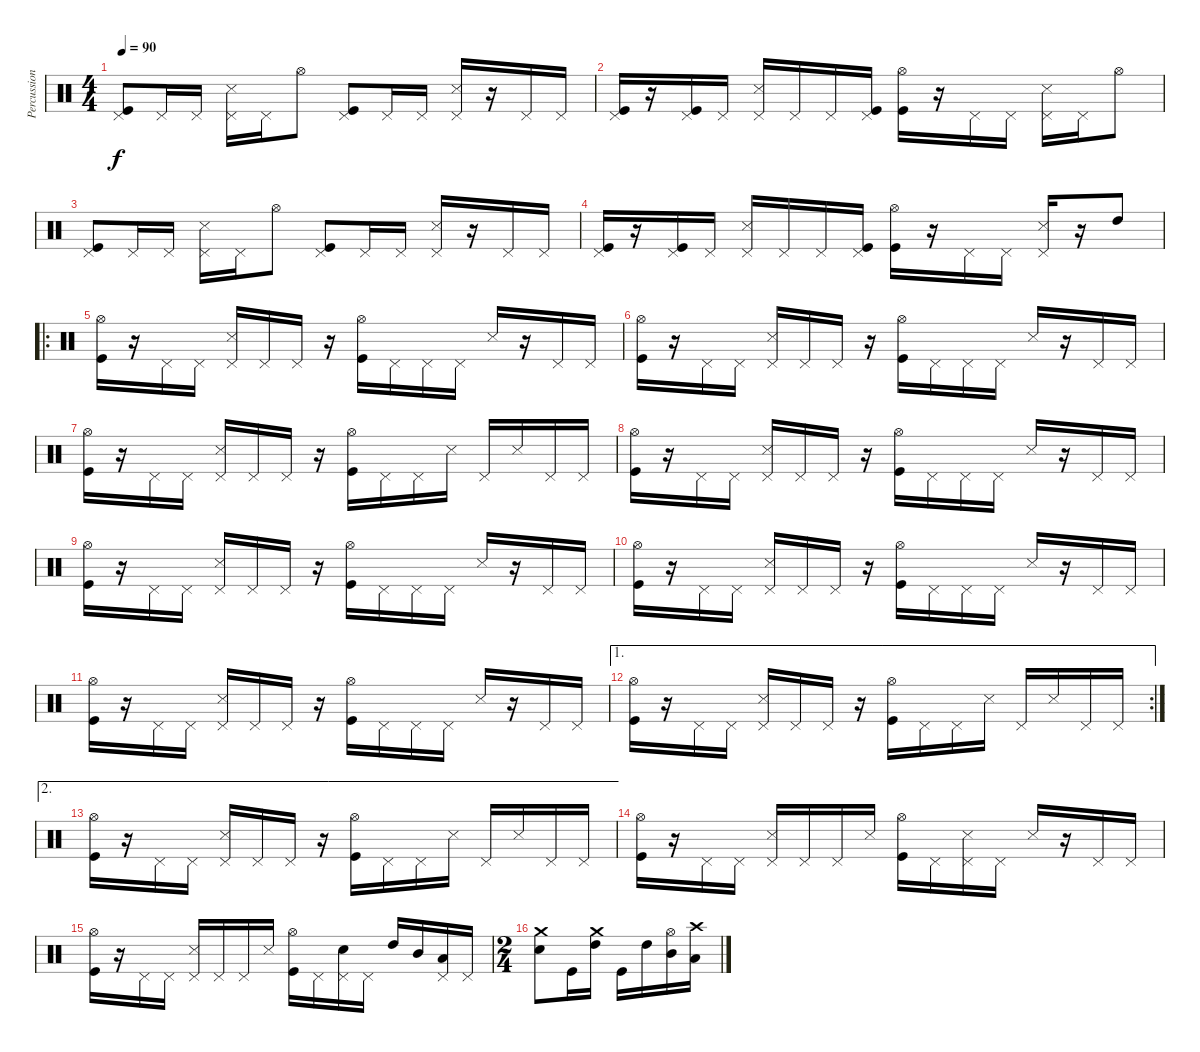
\track ("Percussions" "Percussion") {instrument percussion}
\staff {score}
\articulation defaults
\ts (4 4)
\tempo 90
\clef neutral
\ks c
("Pedal Hi-Hat (hit)" "Kick (hit)").8{dy f} "Pedal Hi-Hat (hit)".16 "Pedal Hi-Hat (hit)".16 ("Pedal Hi-Hat (hit)" "Snare (side stick) 3").16 "Pedal Hi-Hat (hit)".16 "Hi-Hat (open)".8 ("Pedal Hi-Hat (hit)" "Kick (hit)").8 "Pedal Hi-Hat (hit)".16 "Pedal Hi-Hat (hit)".16 ("Pedal Hi-Hat (hit)" "Snare (side stick) 3").16 r.16 "Pedal Hi-Hat (hit)".16 "Pedal Hi-Hat (hit)".16 |
("Pedal Hi-Hat (hit)" "Kick (hit)").16 r.16 ("Pedal Hi-Hat (hit)" "Kick (hit)").16 "Pedal Hi-Hat (hit)".16 ("Pedal Hi-Hat (hit)" "Snare (side stick) 3").16 "Pedal Hi-Hat (hit)".16 "Pedal Hi-Hat (hit)".16 ("Pedal Hi-Hat (hit)" "Kick (hit)").16 ("Hi-Hat (open)" "Kick (hit)").16 r.16 "Pedal Hi-Hat (hit)".16 "Pedal Hi-Hat (hit)".16 ("Pedal Hi-Hat (hit)" "Snare (side stick) 3").16 "Pedal Hi-Hat (hit)".16 "Hi-Hat (open)".8 |
("Pedal Hi-Hat (hit)" "Kick (hit)").8 "Pedal Hi-Hat (hit)".16 "Pedal Hi-Hat (hit)".16 ("Pedal Hi-Hat (hit)" "Snare (side stick) 3").16 "Pedal Hi-Hat (hit)".16 "Hi-Hat (open)".8 ("Pedal Hi-Hat (hit)" "Kick (hit)").8 "Pedal Hi-Hat (hit)".16 "Pedal Hi-Hat (hit)".16 ("Pedal Hi-Hat (hit)" "Snare (side stick) 3").16 r.16 "Pedal Hi-Hat (hit)".16 "Pedal Hi-Hat (hit)".16 |
("Pedal Hi-Hat (hit)" "Kick (hit)").16 r.16 ("Pedal Hi-Hat (hit)" "Kick (hit)").16 "Pedal Hi-Hat (hit)".16 ("Pedal Hi-Hat (hit)" "Snare (side stick) 3").16 "Pedal Hi-Hat (hit)".16 "Pedal Hi-Hat (hit)".16 ("Pedal Hi-Hat (hit)" "Kick (hit)").16 ("Hi-Hat (open)" "Kick (hit)").16 r.16 "Pedal Hi-Hat (hit)".16 "Pedal Hi-Hat (hit)".16 ("Pedal Hi-Hat (hit)" "Snare (side stick) 3").16 r.16 "High Tom (hit)".8 |
\ro
("Hi-Hat (open)" "Kick (hit)").16 r.16 "Pedal Hi-Hat (hit)".16 "Pedal Hi-Hat (hit)".16 ("Pedal Hi-Hat (hit)" "Snare (side stick) 3").16 "Pedal Hi-Hat (hit)".16 "Pedal Hi-Hat (hit)".16 r.16 ("Hi-Hat (open)" "Kick (hit)").16 "Pedal Hi-Hat (hit)".16 "Pedal Hi-Hat (hit)".16 "Pedal Hi-Hat (hit)".16 "Snare (side stick) 3".16 r.16 "Pedal Hi-Hat (hit)".16 "Pedal Hi-Hat (hit)".16 |
("Hi-Hat (open)" "Kick (hit)").16 r.16 "Pedal Hi-Hat (hit)".16 "Pedal Hi-Hat (hit)".16 ("Pedal Hi-Hat (hit)" "Snare (side stick) 3").16 "Pedal Hi-Hat (hit)".16 "Pedal Hi-Hat (hit)".16 r.16 ("Hi-Hat (open)" "Kick (hit)").16 "Pedal Hi-Hat (hit)".16 "Pedal Hi-Hat (hit)".16 "Pedal Hi-Hat (hit)".16 "Snare (side stick) 3".16 r.16 "Pedal Hi-Hat (hit)".16 "Pedal Hi-Hat (hit)".16 |
("Hi-Hat (open)" "Kick (hit)").16 r.16 "Pedal Hi-Hat (hit)".16 "Pedal Hi-Hat (hit)".16 ("Pedal Hi-Hat (hit)" "Snare (side stick) 3").16 "Pedal Hi-Hat (hit)".16 "Pedal Hi-Hat (hit)".16 r.16 ("Hi-Hat (open)" "Kick (hit)").16 "Pedal Hi-Hat (hit)".16 "Pedal Hi-Hat (hit)".16 "Snare (side stick) 3".16 "Pedal Hi-Hat (hit)".16 "Snare (side stick) 3".16 "Pedal Hi-Hat (hit)".16 "Pedal Hi-Hat (hit)".16 |
("Hi-Hat (open)" "Kick (hit)").16 r.16 "Pedal Hi-Hat (hit)".16 "Pedal Hi-Hat (hit)".16 ("Pedal Hi-Hat (hit)" "Snare (side stick) 3").16 "Pedal Hi-Hat (hit)".16 "Pedal Hi-Hat (hit)".16 r.16 ("Hi-Hat (open)" "Kick (hit)").16 "Pedal Hi-Hat (hit)".16 "Pedal Hi-Hat (hit)".16 "Pedal Hi-Hat (hit)".16 "Snare (side stick) 3".16 r.16 "Pedal Hi-Hat (hit)".16 "Pedal Hi-Hat (hit)".16 |
("Hi-Hat (open)" "Kick (hit)").16 r.16 "Pedal Hi-Hat (hit)".16 "Pedal Hi-Hat (hit)".16 ("Pedal Hi-Hat (hit)" "Snare (side stick) 3").16 "Pedal Hi-Hat (hit)".16 "Pedal Hi-Hat (hit)".16 r.16 ("Hi-Hat (open)" "Kick (hit)").16 "Pedal Hi-Hat (hit)".16 "Pedal Hi-Hat (hit)".16 "Pedal Hi-Hat (hit)".16 "Snare (side stick) 3".16 r.16 "Pedal Hi-Hat (hit)".16 "Pedal Hi-Hat (hit)".16 |
("Hi-Hat (open)" "Kick (hit)").16 r.16 "Pedal Hi-Hat (hit)".16 "Pedal Hi-Hat (hit)".16 ("Pedal Hi-Hat (hit)" "Snare (side stick) 3").16 "Pedal Hi-Hat (hit)".16 "Pedal Hi-Hat (hit)".16 r.16 ("Hi-Hat (open)" "Kick (hit)").16 "Pedal Hi-Hat (hit)".16 "Pedal Hi-Hat (hit)".16 "Pedal Hi-Hat (hit)".16 "Snare (side stick) 3".16 r.16 "Pedal Hi-Hat (hit)".16 "Pedal Hi-Hat (hit)".16 |
("Hi-Hat (open)" "Kick (hit)").16 r.16 "Pedal Hi-Hat (hit)".16 "Pedal Hi-Hat (hit)".16 ("Pedal Hi-Hat (hit)" "Snare (side stick) 3").16 "Pedal Hi-Hat (hit)".16 "Pedal Hi-Hat (hit)".16 r.16 ("Hi-Hat (open)" "Kick (hit)").16 "Pedal Hi-Hat (hit)".16 "Pedal Hi-Hat (hit)".16 "Pedal Hi-Hat (hit)".16 "Snare (side stick) 3".16 r.16 "Pedal Hi-Hat (hit)".16 "Pedal Hi-Hat (hit)".16 |
\ae 1
\rc 2
("Hi-Hat (open)" "Kick (hit)").16 r.16 "Pedal Hi-Hat (hit)".16 "Pedal Hi-Hat (hit)".16 ("Pedal Hi-Hat (hit)" "Snare (side stick) 3").16 "Pedal Hi-Hat (hit)".16 "Pedal Hi-Hat (hit)".16 r.16 ("Hi-Hat (open)" "Kick (hit)").16 "Pedal Hi-Hat (hit)".16 "Pedal Hi-Hat (hit)".16 "Snare (side stick) 3".16 "Pedal Hi-Hat (hit)".16 "Snare (side stick) 3".16 "Pedal Hi-Hat (hit)".16 "Pedal Hi-Hat (hit)".16 |
\ae 2
("Hi-Hat (open)" "Kick (hit)").16 r.16 "Pedal Hi-Hat (hit)".16 "Pedal Hi-Hat (hit)".16 ("Pedal Hi-Hat (hit)" "Snare (side stick) 3").16 "Pedal Hi-Hat (hit)".16 "Pedal Hi-Hat (hit)".16 r.16 ("Hi-Hat (open)" "Kick (hit)").16 "Pedal Hi-Hat (hit)".16 "Pedal Hi-Hat (hit)".16 "Snare (side stick) 3".16 "Pedal Hi-Hat (hit)".16 "Snare (side stick) 3".16 "Pedal Hi-Hat (hit)".16 "Pedal Hi-Hat (hit)".16 |
("Hi-Hat (open)" "Kick (hit)").16 r.16 "Pedal Hi-Hat (hit)".16 "Pedal Hi-Hat (hit)".16 ("Pedal Hi-Hat (hit)" "Snare (side stick) 3").16 "Pedal Hi-Hat (hit)".16 "Pedal Hi-Hat (hit)".16 "Snare (side stick) 3".16 ("Hi-Hat (open)" "Kick (hit)").16 "Pedal Hi-Hat (hit)".16 ("Pedal Hi-Hat (hit)" "Snare (side stick) 3").16 "Pedal Hi-Hat (hit)".16 "Snare (side stick) 3".16 r.16 "Pedal Hi-Hat (hit)".16 "Pedal Hi-Hat (hit)".16 |
("Hi-Hat (open)" "Kick (hit)").16 r.16 "Pedal Hi-Hat (hit)".16 "Pedal Hi-Hat (hit)".16 ("Pedal Hi-Hat (hit)" "Snare (side stick) 3").16 "Pedal Hi-Hat (hit)".16 "Pedal Hi-Hat (hit)".16 "Snare (side stick) 3".16 ("Hi-Hat (open)" "Kick (hit)").16 "Pedal Hi-Hat (hit)".16 ("Pedal Hi-Hat (hit)" "Snare (hit) 2").16 "Pedal Hi-Hat (hit)".16 "High Tom (hit)".16 "Mid Tom (hit)".16 ("Pedal Hi-Hat (hit)" "Low Tom (hit)").16 "Pedal Hi-Hat (hit)".16 |
\ts (2 4)
("Crash medium (hit)" "Snare (hit) 2").8 "Kick (hit)".16 ("Crash medium (hit)" "High Tom (hit)").16 "Kick (hit)".16 "High Tom (hit)".16 ("Hi-Hat (open)" "Mid Tom (hit)").16 ("Crash high (hit)" "Low Tom (hit)").16
